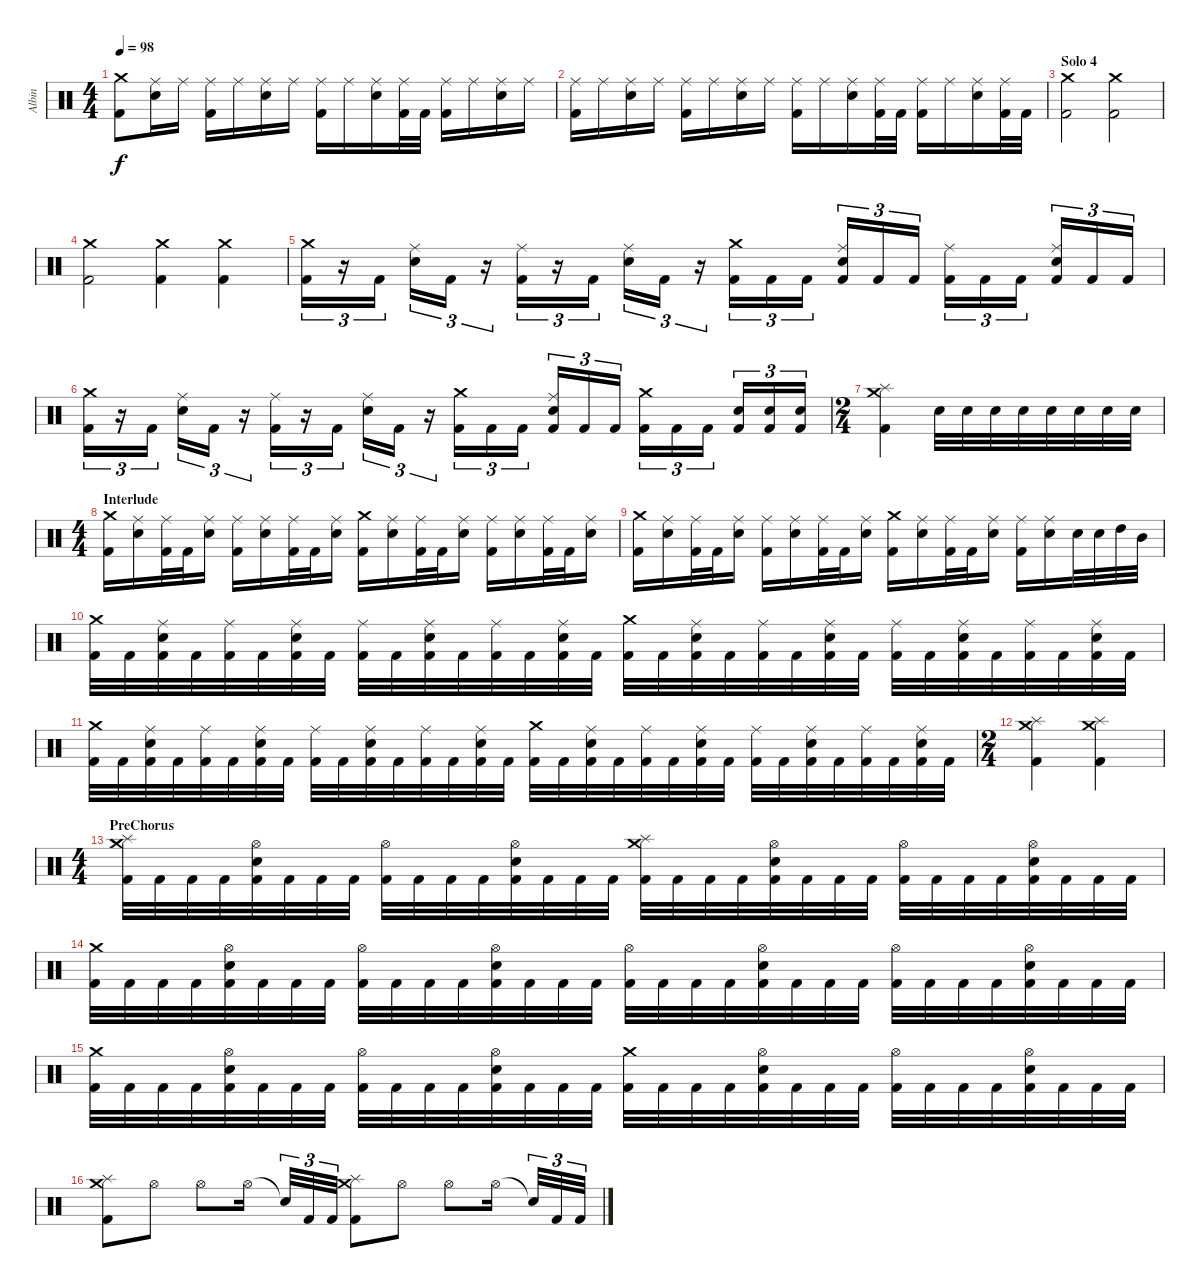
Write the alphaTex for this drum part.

\track ("Albin" "Albin") {instrument percussion}
\staff {score}
\articulation defaults
\ts (4 4)
\tempo 98
\clef neutral
\ks c
("Crash medium (hit)" "Kick (hit) 2").8{dy f} ("Ride (middle)" "Electric Snare (hit)").16 "Ride (middle)".16 ("Ride (middle)" "Kick (hit) 2").16 "Ride (middle)".16 ("Ride (middle)" "Electric Snare (hit)").16 "Ride (middle)".16 ("Ride (middle)" "Kick (hit) 2").16 "Ride (middle)".16 ("Ride (middle)" "Electric Snare (hit)").16 ("Ride (middle)" "Kick (hit) 2").32 "Kick (hit) 2".32 ("Ride (middle)" "Kick (hit) 2").16 "Ride (middle)".16 ("Ride (middle)" "Electric Snare (hit)").16 "Ride (middle)".16 |
("Ride (middle)" "Kick (hit) 2").16 "Ride (middle)".16 ("Ride (middle)" "Electric Snare (hit)").16 "Ride (middle)".16 ("Ride (middle)" "Kick (hit) 2").16 "Ride (middle)".16 ("Ride (middle)" "Electric Snare (hit)").16 "Ride (middle)".16 ("Ride (middle)" "Kick (hit) 2").16 "Ride (middle)".16 ("Ride (middle)" "Electric Snare (hit)").16 ("Ride (middle)" "Kick (hit) 2").32 "Kick (hit) 2".32 ("Ride (middle)" "Kick (hit) 2").16 "Ride (middle)".16 ("Ride (middle)" "Electric Snare (hit)").16 ("Ride (middle)" "Kick (hit) 2").32 "Kick (hit) 2".32 |
\section ("" "Solo 4")
("Crash medium (hit)" "Kick (hit) 2").2 ("Crash medium (hit)" "Kick (hit) 2").2 |
("Crash medium (hit)" "Kick (hit) 2").2 ("Crash medium (hit)" "Kick (hit) 2").4 ("Crash medium (hit)" "Kick (hit) 2").4 |
("Crash medium (hit)" "Kick (hit) 2").16{tu (3 2)} r.16{tu (3 2)} "Kick (hit) 2".16{tu (3 2)} ("Ride (middle)" "Electric Snare (hit)").16{tu (3 2)} "Kick (hit) 2".16{tu (3 2)} r.16{tu (3 2)} ("Ride (middle)" "Kick (hit) 2").16{tu (3 2)} r.16{tu (3 2)} "Kick (hit) 2".16{tu (3 2)} ("Ride (middle)" "Electric Snare (hit)").16{tu (3 2)} "Kick (hit) 2".16{tu (3 2)} r.16{tu (3 2)} ("Crash medium (hit)" "Kick (hit) 2").16{tu (3 2)} "Kick (hit) 2".16{tu (3 2)} "Kick (hit) 2".16{tu (3 2)} ("Ride (middle)" "Electric Snare (hit)" "Kick (hit) 2").16{tu (3 2)} "Kick (hit) 2".16{tu (3 2)} "Kick (hit) 2".16{tu (3 2)} ("Ride (middle)" "Kick (hit) 2").16{tu (3 2)} "Kick (hit) 2".16{tu (3 2)} "Kick (hit) 2".16{tu (3 2)} ("Ride (middle)" "Electric Snare (hit)" "Kick (hit) 2").16{tu (3 2)} "Kick (hit) 2".16{tu (3 2)} "Kick (hit) 2".16{tu (3 2)} |
("Crash medium (hit)" "Kick (hit) 2").16{tu (3 2)} r.16{tu (3 2)} "Kick (hit) 2".16{tu (3 2)} ("Ride (middle)" "Electric Snare (hit)").16{tu (3 2)} "Kick (hit) 2".16{tu (3 2)} r.16{tu (3 2)} ("Ride (middle)" "Kick (hit) 2").16{tu (3 2)} r.16{tu (3 2)} "Kick (hit) 2".16{tu (3 2)} ("Ride (middle)" "Electric Snare (hit)").16{tu (3 2)} "Kick (hit) 2".16{tu (3 2)} r.16{tu (3 2)} ("Crash medium (hit)" "Kick (hit) 2").16{tu (3 2)} "Kick (hit) 2".16{tu (3 2)} "Kick (hit) 2".16{tu (3 2)} ("Ride (middle)" "Electric Snare (hit)" "Kick (hit) 2").16{tu (3 2)} "Kick (hit) 2".16{tu (3 2)} "Kick (hit) 2".16{tu (3 2)} ("Crash medium (hit)" "Kick (hit) 2").16{tu (3 2)} "Kick (hit) 2".16{tu (3 2)} "Kick (hit) 2".16{tu (3 2)} ("Electric Snare (hit)" "Kick (hit) 2").16{tu (3 2)} ("Electric Snare (hit)" "Kick (hit) 2").16{tu (3 2)} ("Electric Snare (hit)" "Kick (hit) 2").16{tu (3 2)} |
\ts (2 4)
("Crash medium (hit)" "Splash (hit)" "Kick (hit) 2").4 "Electric Snare (hit)".32 "Electric Snare (hit)".32 "Electric Snare (hit)".32 "Electric Snare (hit)".32 "Electric Snare (hit)".32 "Electric Snare (hit)".32 "Electric Snare (hit)".32 "Electric Snare (hit)".32 |
\ts (4 4)
\section ("" "Interlude")
("Crash medium (hit)" "Kick (hit) 2").16 ("Ride (middle)" "Electric Snare (hit)").16 ("Ride (middle)" "Kick (hit) 2").32 "Kick (hit) 2".32 ("Ride (middle)" "Electric Snare (hit)").16 ("Ride (middle)" "Kick (hit) 2").16 ("Ride (middle)" "Electric Snare (hit)").16 ("Ride (middle)" "Kick (hit) 2").32 "Kick (hit) 2".32 ("Ride (middle)" "Electric Snare (hit)").16 ("Crash medium (hit)" "Kick (hit) 2").16 ("Ride (middle)" "Electric Snare (hit)").16 ("Ride (middle)" "Kick (hit) 2").32 "Kick (hit) 2".32 ("Ride (middle)" "Electric Snare (hit)").16 ("Ride (middle)" "Kick (hit) 2").16 ("Ride (middle)" "Electric Snare (hit)").16 ("Ride (middle)" "Kick (hit) 2").32 "Kick (hit) 2".32 ("Ride (middle)" "Electric Snare (hit)").16 |
("Crash medium (hit)" "Kick (hit) 2").16 ("Ride (middle)" "Electric Snare (hit)").16 ("Ride (middle)" "Kick (hit) 2").32 "Kick (hit) 2".32 ("Ride (middle)" "Electric Snare (hit)").16 ("Ride (middle)" "Kick (hit) 2").16 ("Ride (middle)" "Electric Snare (hit)").16 ("Ride (middle)" "Kick (hit) 2").32 "Kick (hit) 2".32 ("Ride (middle)" "Electric Snare (hit)").16 ("Crash medium (hit)" "Kick (hit) 2").16 ("Ride (middle)" "Electric Snare (hit)").16 ("Ride (middle)" "Kick (hit) 2").32 "Kick (hit) 2".32 ("Ride (middle)" "Electric Snare (hit)").16 ("Ride (middle)" "Kick (hit) 2").16 ("Ride (middle)" "Electric Snare (hit)").16 "Electric Snare (hit)".32 "Electric Snare (hit)".32 "High Tom (hit)".32 "Mid Tom (hit)".32 |
("Crash medium (hit)" "Kick (hit) 2").32 "Kick (hit) 2".32 ("Ride (middle)" "Electric Snare (hit)" "Kick (hit) 2").32 "Kick (hit) 2".32 ("Ride (middle)" "Kick (hit) 2").32 "Kick (hit) 2".32 ("Ride (middle)" "Electric Snare (hit)" "Kick (hit) 2").32 "Kick (hit) 2".32 ("Ride (middle)" "Kick (hit) 2").32 "Kick (hit) 2".32 ("Ride (middle)" "Electric Snare (hit)" "Kick (hit) 2").32 "Kick (hit) 2".32 ("Ride (middle)" "Kick (hit) 2").32 "Kick (hit) 2".32 ("Ride (middle)" "Electric Snare (hit)" "Kick (hit) 2").32 "Kick (hit) 2".32 ("Crash medium (hit)" "Kick (hit) 2").32 "Kick (hit) 2".32 ("Ride (middle)" "Electric Snare (hit)" "Kick (hit) 2").32 "Kick (hit) 2".32 ("Ride (middle)" "Kick (hit) 2").32 "Kick (hit) 2".32 ("Ride (middle)" "Electric Snare (hit)" "Kick (hit) 2").32 "Kick (hit) 2".32 ("Ride (middle)" "Kick (hit) 2").32 "Kick (hit) 2".32 ("Ride (middle)" "Electric Snare (hit)" "Kick (hit) 2").32 "Kick (hit) 2".32 ("Ride (middle)" "Kick (hit) 2").32 "Kick (hit) 2".32 ("Ride (middle)" "Electric Snare (hit)" "Kick (hit) 2").32 "Kick (hit) 2".32 |
("Crash medium (hit)" "Kick (hit) 2").32 "Kick (hit) 2".32 ("Ride (middle)" "Electric Snare (hit)" "Kick (hit) 2").32 "Kick (hit) 2".32 ("Ride (middle)" "Kick (hit) 2").32 "Kick (hit) 2".32 ("Ride (middle)" "Electric Snare (hit)" "Kick (hit) 2").32 "Kick (hit) 2".32 ("Ride (middle)" "Kick (hit) 2").32 "Kick (hit) 2".32 ("Ride (middle)" "Electric Snare (hit)" "Kick (hit) 2").32 "Kick (hit) 2".32 ("Ride (middle)" "Kick (hit) 2").32 "Kick (hit) 2".32 ("Ride (middle)" "Electric Snare (hit)" "Kick (hit) 2").32 "Kick (hit) 2".32 ("Crash medium (hit)" "Kick (hit) 2").32 "Kick (hit) 2".32 ("Ride (middle)" "Electric Snare (hit)" "Kick (hit) 2").32 "Kick (hit) 2".32 ("Ride (middle)" "Kick (hit) 2").32 "Kick (hit) 2".32 ("Ride (middle)" "Electric Snare (hit)" "Kick (hit) 2").32 "Kick (hit) 2".32 ("Ride (middle)" "Kick (hit) 2").32 "Kick (hit) 2".32 ("Ride (middle)" "Electric Snare (hit)" "Kick (hit) 2").32 "Kick (hit) 2".32 ("Ride (middle)" "Kick (hit) 2").32 "Kick (hit) 2".32 ("Ride (middle)" "Electric Snare (hit)" "Kick (hit) 2").32 "Kick (hit) 2".32 |
\ts (2 4)
("Crash medium (hit)" "Splash (hit)" "Kick (hit) 2").4 ("Crash medium (hit)" "Splash (hit)" "Kick (hit) 2").4 |
\ts (4 4)
\section ("" "PreChorus")
("Crash medium (hit)" "Splash (hit)" "Kick (hit) 2").32 "Kick (hit) 2".32 "Kick (hit) 2".32 "Kick (hit) 2".32 ("Hi-Hat (open)" "Electric Snare (hit)" "Kick (hit) 2").32 "Kick (hit) 2".32 "Kick (hit) 2".32 "Kick (hit) 2".32 ("Hi-Hat (open)" "Kick (hit) 2").32 "Kick (hit) 2".32 "Kick (hit) 2".32 "Kick (hit) 2".32 ("Hi-Hat (open)" "Electric Snare (hit)" "Kick (hit) 2").32 "Kick (hit) 2".32 "Kick (hit) 2".32 "Kick (hit) 2".32 ("Crash medium (hit)" "Splash (hit)" "Kick (hit) 2").32 "Kick (hit) 2".32 "Kick (hit) 2".32 "Kick (hit) 2".32 ("Hi-Hat (open)" "Electric Snare (hit)" "Kick (hit) 2").32 "Kick (hit) 2".32 "Kick (hit) 2".32 "Kick (hit) 2".32 ("Hi-Hat (open)" "Kick (hit) 2").32 "Kick (hit) 2".32 "Kick (hit) 2".32 "Kick (hit) 2".32 ("Hi-Hat (open)" "Electric Snare (hit)" "Kick (hit) 2").32 "Kick (hit) 2".32 "Kick (hit) 2".32 "Kick (hit) 2".32 |
("Crash medium (hit)" "Kick (hit) 2").32 "Kick (hit) 2".32 "Kick (hit) 2".32 "Kick (hit) 2".32 ("Hi-Hat (open)" "Electric Snare (hit)" "Kick (hit) 2").32 "Kick (hit) 2".32 "Kick (hit) 2".32 "Kick (hit) 2".32 ("Hi-Hat (open)" "Kick (hit) 2").32 "Kick (hit) 2".32 "Kick (hit) 2".32 "Kick (hit) 2".32 ("Hi-Hat (open)" "Electric Snare (hit)" "Kick (hit) 2").32 "Kick (hit) 2".32 "Kick (hit) 2".32 "Kick (hit) 2".32 ("Hi-Hat (open)" "Kick (hit) 2").32 "Kick (hit) 2".32 "Kick (hit) 2".32 "Kick (hit) 2".32 ("Hi-Hat (open)" "Electric Snare (hit)" "Kick (hit) 2").32 "Kick (hit) 2".32 "Kick (hit) 2".32 "Kick (hit) 2".32 ("Hi-Hat (open)" "Kick (hit) 2").32 "Kick (hit) 2".32 "Kick (hit) 2".32 "Kick (hit) 2".32 ("Hi-Hat (open)" "Electric Snare (hit)" "Kick (hit) 2").32 "Kick (hit) 2".32 "Kick (hit) 2".32 "Kick (hit) 2".32 |
("Crash medium (hit)" "Kick (hit) 2").32 "Kick (hit) 2".32 "Kick (hit) 2".32 "Kick (hit) 2".32 ("Hi-Hat (open)" "Electric Snare (hit)" "Kick (hit) 2").32 "Kick (hit) 2".32 "Kick (hit) 2".32 "Kick (hit) 2".32 ("Hi-Hat (open)" "Kick (hit) 2").32 "Kick (hit) 2".32 "Kick (hit) 2".32 "Kick (hit) 2".32 ("Hi-Hat (open)" "Electric Snare (hit)" "Kick (hit) 2").32 "Kick (hit) 2".32 "Kick (hit) 2".32 "Kick (hit) 2".32 ("Crash medium (hit)" "Kick (hit) 2").32 "Kick (hit) 2".32 "Kick (hit) 2".32 "Kick (hit) 2".32 ("Hi-Hat (open)" "Electric Snare (hit)" "Kick (hit) 2").32 "Kick (hit) 2".32 "Kick (hit) 2".32 "Kick (hit) 2".32 ("Hi-Hat (open)" "Kick (hit) 2").32 "Kick (hit) 2".32 "Kick (hit) 2".32 "Kick (hit) 2".32 ("Hi-Hat (open)" "Electric Snare (hit)" "Kick (hit) 2").32 "Kick (hit) 2".32 "Kick (hit) 2".32 "Kick (hit) 2".32 |
("Crash medium (hit)" "Splash (hit)" "Kick (hit) 2").8 "Hi-Hat (open)".8 "Hi-Hat (open)".8 "Hi-Hat (open)".16 "Snare (hit)"{t}.32{tu (3 2)} "Kick (hit) 2".32{tu (3 2)} "Kick (hit) 2".32{tu (3 2)} ("Crash medium (hit)" "Splash (hit)" "Kick (hit) 2").8 "Hi-Hat (open)".8 "Hi-Hat (open)".8 "Hi-Hat (open)".16 "Snare (hit)"{t}.32{tu (3 2)} "Kick (hit) 2".32{tu (3 2)} "Kick (hit) 2".32{tu (3 2)}
